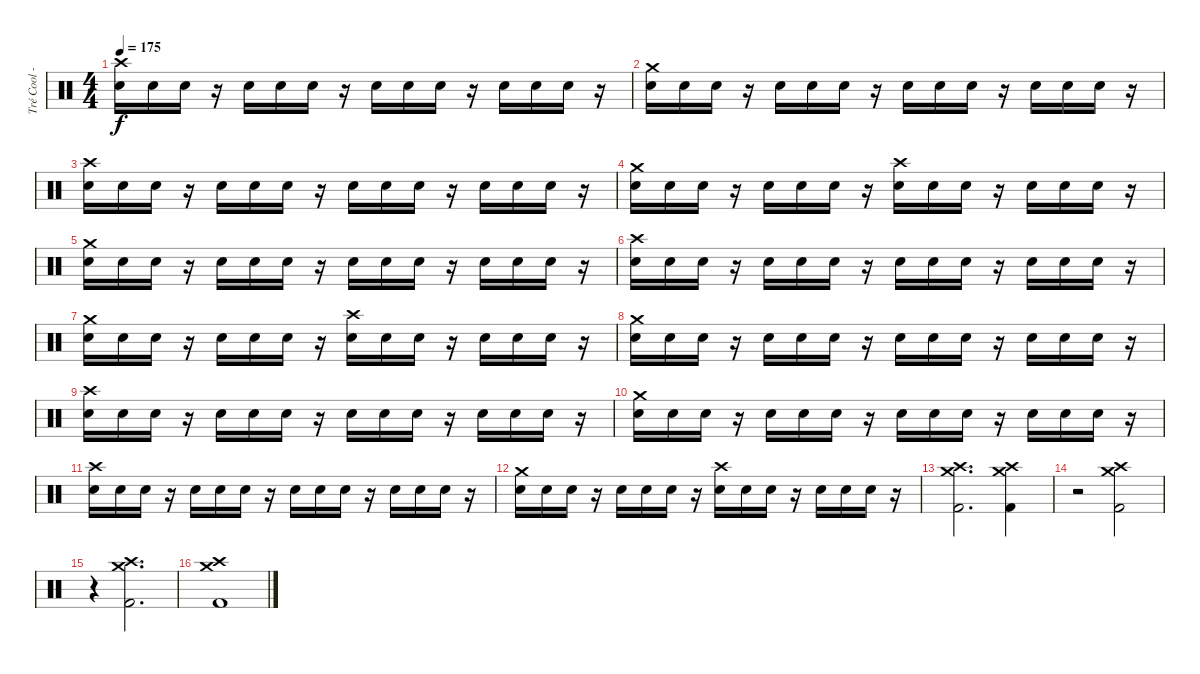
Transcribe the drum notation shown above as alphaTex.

\track ("Tré Cool - Drums" "Tré Cool -") {instrument percussion}
\staff {score}
\articulation defaults
\ts (4 4)
\tempo 175
\clef neutral
\ks c
("Crash high (hit)" "Electric Snare (hit)").16{dy f} "Electric Snare (hit)".16 "Electric Snare (hit)".16 r.16 "Electric Snare (hit)".16 "Electric Snare (hit)".16 "Electric Snare (hit)".16 r.16 "Electric Snare (hit)".16 "Electric Snare (hit)".16 "Electric Snare (hit)".16 r.16 "Electric Snare (hit)".16 "Electric Snare (hit)".16 "Electric Snare (hit)".16 r.16 |
("Crash medium (hit)" "Electric Snare (hit)").16 "Electric Snare (hit)".16 "Electric Snare (hit)".16 r.16 "Electric Snare (hit)".16 "Electric Snare (hit)".16 "Electric Snare (hit)".16 r.16 "Electric Snare (hit)".16 "Electric Snare (hit)".16 "Electric Snare (hit)".16 r.16 "Electric Snare (hit)".16 "Electric Snare (hit)".16 "Electric Snare (hit)".16 r.16 |
("Crash high (hit)" "Electric Snare (hit)").16 "Electric Snare (hit)".16 "Electric Snare (hit)".16 r.16 "Electric Snare (hit)".16 "Electric Snare (hit)".16 "Electric Snare (hit)".16 r.16 "Electric Snare (hit)".16 "Electric Snare (hit)".16 "Electric Snare (hit)".16 r.16 "Electric Snare (hit)".16 "Electric Snare (hit)".16 "Electric Snare (hit)".16 r.16 |
("Crash medium (hit)" "Electric Snare (hit)").16 "Electric Snare (hit)".16 "Electric Snare (hit)".16 r.16 "Electric Snare (hit)".16 "Electric Snare (hit)".16 "Electric Snare (hit)".16 r.16 ("Crash high (hit)" "Electric Snare (hit)").16 "Electric Snare (hit)".16 "Electric Snare (hit)".16 r.16 "Electric Snare (hit)".16 "Electric Snare (hit)".16 "Electric Snare (hit)".16 r.16 |
("Crash medium (hit)" "Electric Snare (hit)").16 "Electric Snare (hit)".16 "Electric Snare (hit)".16 r.16 "Electric Snare (hit)".16 "Electric Snare (hit)".16 "Electric Snare (hit)".16 r.16 "Electric Snare (hit)".16 "Electric Snare (hit)".16 "Electric Snare (hit)".16 r.16 "Electric Snare (hit)".16 "Electric Snare (hit)".16 "Electric Snare (hit)".16 r.16 |
("Crash high (hit)" "Electric Snare (hit)").16 "Electric Snare (hit)".16 "Electric Snare (hit)".16 r.16 "Electric Snare (hit)".16 "Electric Snare (hit)".16 "Electric Snare (hit)".16 r.16 "Electric Snare (hit)".16 "Electric Snare (hit)".16 "Electric Snare (hit)".16 r.16 "Electric Snare (hit)".16 "Electric Snare (hit)".16 "Electric Snare (hit)".16 r.16 |
("Crash medium (hit)" "Electric Snare (hit)").16 "Electric Snare (hit)".16 "Electric Snare (hit)".16 r.16 "Electric Snare (hit)".16 "Electric Snare (hit)".16 "Electric Snare (hit)".16 r.16 ("Crash high (hit)" "Electric Snare (hit)").16 "Electric Snare (hit)".16 "Electric Snare (hit)".16 r.16 "Electric Snare (hit)".16 "Electric Snare (hit)".16 "Electric Snare (hit)".16 r.16 |
("Crash medium (hit)" "Electric Snare (hit)").16 "Electric Snare (hit)".16 "Electric Snare (hit)".16 r.16 "Electric Snare (hit)".16 "Electric Snare (hit)".16 "Electric Snare (hit)".16 r.16 "Electric Snare (hit)".16 "Electric Snare (hit)".16 "Electric Snare (hit)".16 r.16 "Electric Snare (hit)".16 "Electric Snare (hit)".16 "Electric Snare (hit)".16 r.16 |
("Crash high (hit)" "Electric Snare (hit)").16 "Electric Snare (hit)".16 "Electric Snare (hit)".16 r.16 "Electric Snare (hit)".16 "Electric Snare (hit)".16 "Electric Snare (hit)".16 r.16 "Electric Snare (hit)".16 "Electric Snare (hit)".16 "Electric Snare (hit)".16 r.16 "Electric Snare (hit)".16 "Electric Snare (hit)".16 "Electric Snare (hit)".16 r.16 |
("Crash medium (hit)" "Electric Snare (hit)").16 "Electric Snare (hit)".16 "Electric Snare (hit)".16 r.16 "Electric Snare (hit)".16 "Electric Snare (hit)".16 "Electric Snare (hit)".16 r.16 "Electric Snare (hit)".16 "Electric Snare (hit)".16 "Electric Snare (hit)".16 r.16 "Electric Snare (hit)".16 "Electric Snare (hit)".16 "Electric Snare (hit)".16 r.16 |
("Crash high (hit)" "Electric Snare (hit)").16 "Electric Snare (hit)".16 "Electric Snare (hit)".16 r.16 "Electric Snare (hit)".16 "Electric Snare (hit)".16 "Electric Snare (hit)".16 r.16 "Electric Snare (hit)".16 "Electric Snare (hit)".16 "Electric Snare (hit)".16 r.16 "Electric Snare (hit)".16 "Electric Snare (hit)".16 "Electric Snare (hit)".16 r.16 |
("Crash medium (hit)" "Electric Snare (hit)").16 "Electric Snare (hit)".16 "Electric Snare (hit)".16 r.16 "Electric Snare (hit)".16 "Electric Snare (hit)".16 "Electric Snare (hit)".16 r.16 ("Crash high (hit)" "Electric Snare (hit)").16 "Electric Snare (hit)".16 "Electric Snare (hit)".16 r.16 "Electric Snare (hit)".16 "Electric Snare (hit)".16 "Electric Snare (hit)".16 r.16 |
("Crash medium (hit)" "Crash high (hit)" "Kick (hit) 2").2{d} ("Crash medium (hit)" "Crash high (hit)" "Kick (hit) 2").4 |
r.2 ("Crash medium (hit)" "Crash high (hit)" "Kick (hit) 2").2 |
r.4 ("Crash medium (hit)" "Crash high (hit)" "Kick (hit) 2").2{d} |
("Crash medium (hit)" "Crash high (hit)" "Kick (hit) 2").1
